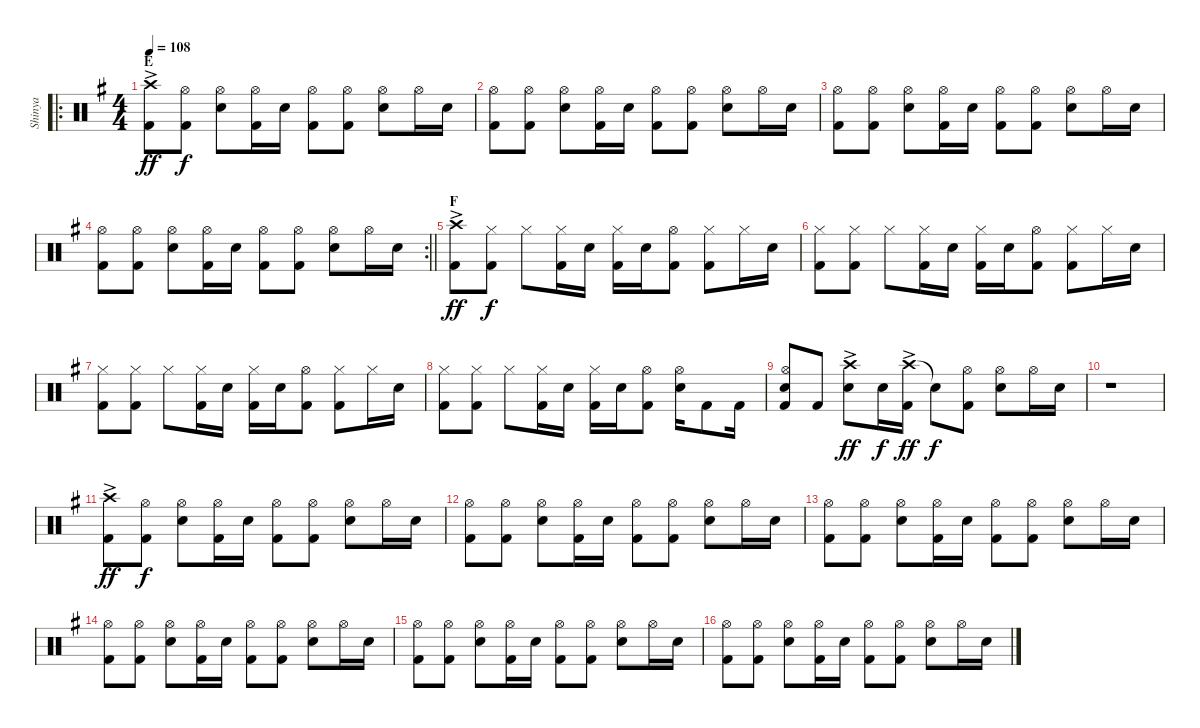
\track ("Shinya" "Shinya") {instrument percussion}
\staff {score}
\articulation defaults
\ro
\ts (4 4)
\section ("" "E")
\tempo 108
\clef neutral
\ks eminor
("Crash high (hit)"{ac} "Kick (hit) 2").8{dy ff} ("Hi-Hat (open)" "Kick (hit) 2").8{dy f} ("Hi-Hat (open)" "Snare (hit) 2").8 ("Hi-Hat (open)" "Kick (hit) 2").16 "Snare (hit) 2".16 ("Hi-Hat (open)" "Kick (hit) 2").8 ("Hi-Hat (open)" "Kick (hit) 2").8 ("Hi-Hat (open)" "Snare (hit) 2").8 "Hi-Hat (open)".16 "Snare (hit) 2".16 |
("Hi-Hat (open)" "Kick (hit) 2").8 ("Hi-Hat (open)" "Kick (hit) 2").8 ("Hi-Hat (open)" "Snare (hit) 2").8 ("Hi-Hat (open)" "Kick (hit) 2").16 "Snare (hit) 2".16 ("Hi-Hat (open)" "Kick (hit) 2").8 ("Hi-Hat (open)" "Kick (hit) 2").8 ("Hi-Hat (open)" "Snare (hit) 2").8 "Hi-Hat (open)".16 "Snare (hit) 2".16 |
("Hi-Hat (open)" "Kick (hit) 2").8 ("Hi-Hat (open)" "Kick (hit) 2").8 ("Hi-Hat (open)" "Snare (hit) 2").8 ("Hi-Hat (open)" "Kick (hit) 2").16 "Snare (hit) 2".16 ("Hi-Hat (open)" "Kick (hit) 2").8 ("Hi-Hat (open)" "Kick (hit) 2").8 ("Hi-Hat (open)" "Snare (hit) 2").8 "Hi-Hat (open)".16 "Snare (hit) 2".16 |
\rc 2
\barLineRight lightlight
("Hi-Hat (open)" "Kick (hit) 2").8 ("Hi-Hat (open)" "Kick (hit) 2").8 ("Hi-Hat (open)" "Snare (hit) 2").8 ("Hi-Hat (open)" "Kick (hit) 2").16 "Snare (hit) 2".16 ("Hi-Hat (open)" "Kick (hit) 2").8 ("Hi-Hat (open)" "Kick (hit) 2").8 ("Hi-Hat (open)" "Snare (hit) 2").8 "Hi-Hat (open)".16 "Snare (hit) 2".16 |
\section ("" "F")
("Crash high (hit)"{ac} "Kick (hit) 2").8{dy ff} ("Hi-Hat (closed)" "Kick (hit) 2").8{dy f} "Hi-Hat (closed)".8 ("Hi-Hat (closed)" "Kick (hit) 2").16 "Snare (hit) 2".16 ("Hi-Hat (closed)" "Kick (hit) 2").16 "Snare (hit) 2".16 ("Hi-Hat (open)" "Kick (hit) 2").8 ("Hi-Hat (closed)" "Kick (hit) 2").8 "Hi-Hat (closed)".16 "Snare (hit) 2".16 |
("Hi-Hat (closed)" "Kick (hit) 2").8 ("Hi-Hat (closed)" "Kick (hit) 2").8 "Hi-Hat (closed)".8 ("Hi-Hat (closed)" "Kick (hit) 2").16 "Snare (hit) 2".16 ("Hi-Hat (closed)" "Kick (hit) 2").16 "Snare (hit) 2".16 ("Hi-Hat (open)" "Kick (hit) 2").8 ("Hi-Hat (closed)" "Kick (hit) 2").8 "Hi-Hat (closed)".16 "Snare (hit) 2".16 |
("Hi-Hat (closed)" "Kick (hit) 2").8 ("Hi-Hat (closed)" "Kick (hit) 2").8 "Hi-Hat (closed)".8 ("Hi-Hat (closed)" "Kick (hit) 2").16 "Snare (hit) 2".16 ("Hi-Hat (closed)" "Kick (hit) 2").16 "Snare (hit) 2".16 ("Hi-Hat (open)" "Kick (hit) 2").8 ("Hi-Hat (closed)" "Kick (hit) 2").8 "Hi-Hat (closed)".16 "Snare (hit) 2".16 |
("Hi-Hat (closed)" "Kick (hit) 2").8 ("Hi-Hat (closed)" "Kick (hit) 2").8 "Hi-Hat (closed)".8 ("Hi-Hat (closed)" "Kick (hit) 2").16 "Snare (hit) 2".16 ("Hi-Hat (closed)" "Kick (hit) 2").16 "Snare (hit) 2".16 ("Hi-Hat (open)" "Kick (hit) 2").8 ("Hi-Hat (open)" "Snare (hit) 2").16 "Kick (hit) 2".8 "Kick (hit) 2".16 |
("Hi-Hat (open)" "Snare (hit) 2" "Kick (hit) 2").8 "Kick (hit) 2".8 ("Crash high (hit)"{ac} "Snare (hit) 2").8{dy ff} "Snare (hit) 2".16{dy f} ("Crash high (hit)"{ac} "Kick (hit) 2").16{dy ff} "Snare (hit)"{t}.8{dy f} ("Hi-Hat (open)" "Kick (hit) 2").8 ("Hi-Hat (open)" "Snare (hit) 2").8 "Hi-Hat (open)".16 "Snare (hit) 2".16 |
r.1 |
("Crash high (hit)"{ac} "Kick (hit) 2").8{dy ff} ("Hi-Hat (open)" "Kick (hit) 2").8{dy f} ("Hi-Hat (open)" "Snare (hit) 2").8 ("Hi-Hat (open)" "Kick (hit) 2").16 "Snare (hit) 2".16 ("Hi-Hat (open)" "Kick (hit) 2").8 ("Hi-Hat (open)" "Kick (hit) 2").8 ("Hi-Hat (open)" "Snare (hit) 2").8 "Hi-Hat (open)".16 "Snare (hit) 2".16 |
("Hi-Hat (open)" "Kick (hit) 2").8 ("Hi-Hat (open)" "Kick (hit) 2").8 ("Hi-Hat (open)" "Snare (hit) 2").8 ("Hi-Hat (open)" "Kick (hit) 2").16 "Snare (hit) 2".16 ("Hi-Hat (open)" "Kick (hit) 2").8 ("Hi-Hat (open)" "Kick (hit) 2").8 ("Hi-Hat (open)" "Snare (hit) 2").8 "Hi-Hat (open)".16 "Snare (hit) 2".16 |
("Hi-Hat (open)" "Kick (hit) 2").8 ("Hi-Hat (open)" "Kick (hit) 2").8 ("Hi-Hat (open)" "Snare (hit) 2").8 ("Hi-Hat (open)" "Kick (hit) 2").16 "Snare (hit) 2".16 ("Hi-Hat (open)" "Kick (hit) 2").8 ("Hi-Hat (open)" "Kick (hit) 2").8 ("Hi-Hat (open)" "Snare (hit) 2").8 "Hi-Hat (open)".16 "Snare (hit) 2".16 |
("Hi-Hat (open)" "Kick (hit) 2").8 ("Hi-Hat (open)" "Kick (hit) 2").8 ("Hi-Hat (open)" "Snare (hit) 2").8 ("Hi-Hat (open)" "Kick (hit) 2").16 "Snare (hit) 2".16 ("Hi-Hat (open)" "Kick (hit) 2").8 ("Hi-Hat (open)" "Kick (hit) 2").8 ("Hi-Hat (open)" "Snare (hit) 2").8 "Hi-Hat (open)".16 "Snare (hit) 2".16 |
("Hi-Hat (open)" "Kick (hit) 2").8 ("Hi-Hat (open)" "Kick (hit) 2").8 ("Hi-Hat (open)" "Snare (hit) 2").8 ("Hi-Hat (open)" "Kick (hit) 2").16 "Snare (hit) 2".16 ("Hi-Hat (open)" "Kick (hit) 2").8 ("Hi-Hat (open)" "Kick (hit) 2").8 ("Hi-Hat (open)" "Snare (hit) 2").8 "Hi-Hat (open)".16 "Snare (hit) 2".16 |
("Hi-Hat (open)" "Kick (hit) 2").8 ("Hi-Hat (open)" "Kick (hit) 2").8 ("Hi-Hat (open)" "Snare (hit) 2").8 ("Hi-Hat (open)" "Kick (hit) 2").16 "Snare (hit) 2".16 ("Hi-Hat (open)" "Kick (hit) 2").8 ("Hi-Hat (open)" "Kick (hit) 2").8 ("Hi-Hat (open)" "Snare (hit) 2").8 "Hi-Hat (open)".16 "Snare (hit) 2".16
